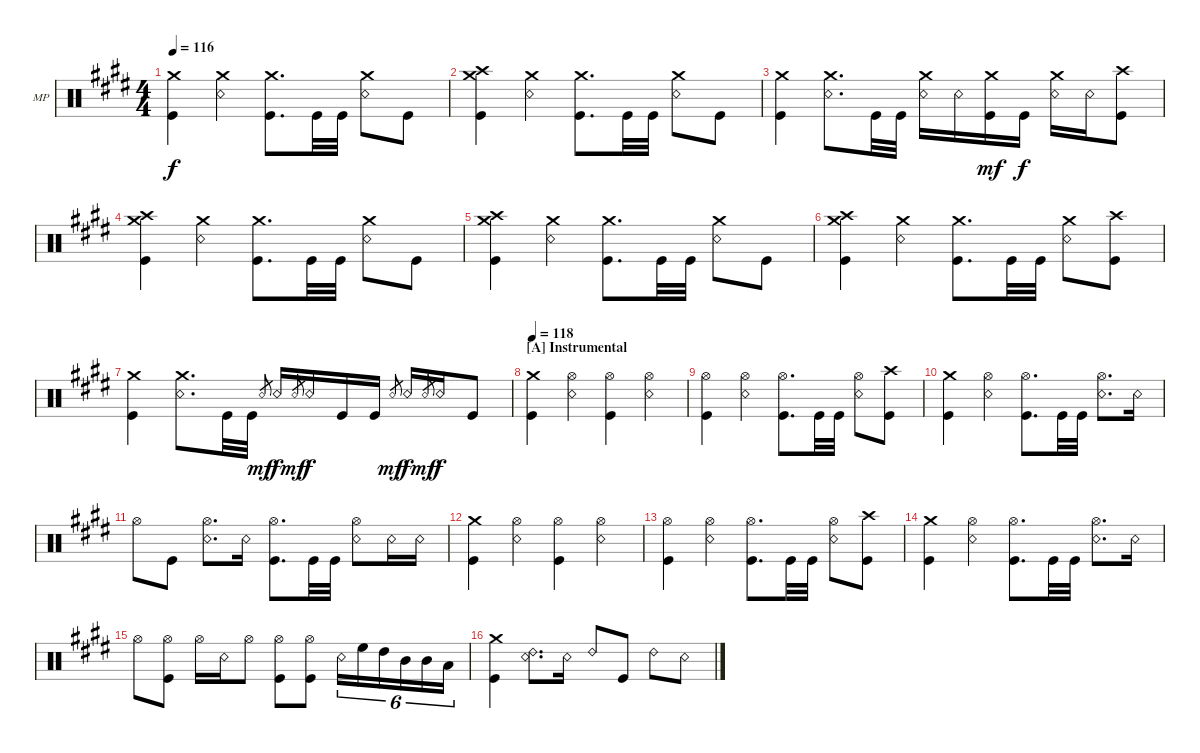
\defaultSystemsLayout 4
\bracketExtendMode groupsimilarinstruments
\firstSystemTrackNameOrientation horizontal
\otherSystemsTrackNameOrientation horizontal
\track ("Mike Portnoy" "MP") {instrument percussion}
\staff {score}
\articulation defaults
\ts (4 4)
\tempo 116
\clef neutral
\ks e
("Crash medium (hit)" "Kick (hit)").4{dy f} ("Crash medium (hit)" "Snare (rim shot)").4 ("Crash medium (hit)" "Kick (hit)").8{d} "Kick (hit)".32 "Kick (hit)".32 ("Crash medium (hit)" "Snare (rim shot)").8 "Kick (hit)".8 |
("Crash medium (hit)" "Crash high (hit)" "Kick (hit)").4 ("Crash medium (hit)" "Snare (rim shot)").4 ("Crash medium (hit)" "Kick (hit)").8{d} "Kick (hit)".32 "Kick (hit)".32 ("Crash medium (hit)" "Snare (rim shot)").8 "Kick (hit)".8 |
("Crash medium (hit)" "Kick (hit)").4 ("Crash medium (hit)" "Snare (rim shot)").8{d} "Kick (hit)".32 "Kick (hit)".32 ("Crash medium (hit)" "Snare (rim shot)").16 "Snare (rim shot)".16 ("Crash medium (hit)" "Kick (hit)").16{dy mf} "Kick (hit)".16{dy f} ("Crash medium (hit)" "Snare (rim shot)").16 "Snare (rim shot)".16 ("Crash high (hit)" "Kick (hit)").8 |
("Crash medium (hit)" "Crash high (hit)" "Kick (hit)").4 ("Crash medium (hit)" "Snare (rim shot)").4 ("Crash medium (hit)" "Kick (hit)").8{d} "Kick (hit)".32 "Kick (hit)".32 ("Crash medium (hit)" "Snare (rim shot)").8 "Kick (hit)".8 |
("Crash medium (hit)" "Crash high (hit)" "Kick (hit)").4 ("Crash medium (hit)" "Snare (rim shot)").4 ("Crash medium (hit)" "Kick (hit)").8{d} "Kick (hit)".32 "Kick (hit)".32 ("Crash medium (hit)" "Snare (rim shot)").8 "Kick (hit)".8 |
("Crash medium (hit)" "Crash high (hit)" "Kick (hit)").4 ("Crash medium (hit)" "Snare (rim shot)").4 ("Crash medium (hit)" "Kick (hit)").8{d} "Kick (hit)".32 "Kick (hit)".32 ("Crash medium (hit)" "Snare (rim shot)").8 ("Crash high (hit)" "Kick (hit)").8 |
("Crash medium (hit)" "Kick (hit)").4 ("Crash medium (hit)" "Snare (rim shot)").8{d} "Kick (hit)".32 "Kick (hit)".32 "Snare (rim shot)".8{gr dy mf} "Snare (rim shot)".16{dy f} "Snare (rim shot)".8{gr dy mf} "Snare (rim shot)".16{dy f} "Kick (hit)".16 "Kick (hit)".16 "Snare (rim shot)".8{gr dy mf} "Snare (rim shot)".16{dy f} "Snare (rim shot)".8{gr dy mf} "Snare (rim shot)".16{dy f} "Kick (hit)".8 |
\section ("A" "Instrumental")
\tempo 118
("Crash medium (hit)" "Kick (hit)").4 ("Hi-Hat (open)" "Snare (rim shot)").4 ("Hi-Hat (open)" "Kick (hit)").4 ("Hi-Hat (open)" "Snare (rim shot)").4 |
("Hi-Hat (open)" "Kick (hit)").4 ("Hi-Hat (open)" "Snare (rim shot)").4 ("Hi-Hat (open)" "Kick (hit)").8{d} "Kick (hit)".32 "Kick (hit)".32 ("Hi-Hat (open)" "Snare (rim shot)").8 ("Crash high (hit)" "Kick (hit)").8 |
("Crash medium (hit)" "Kick (hit)").4 ("Hi-Hat (open)" "Snare (rim shot)").4 ("Hi-Hat (open)" "Kick (hit)").8{d} "Kick (hit)".32 "Kick (hit)".32 ("Hi-Hat (open)" "Snare (rim shot)").8{d} "Snare (rim shot)".16 |
"Hi-Hat (open)".8 "Kick (hit)".8 ("Hi-Hat (open)" "Snare (rim shot)").8{d} "Snare (rim shot)".16 ("Hi-Hat (open)" "Kick (hit)").8{d} "Kick (hit)".32 "Kick (hit)".32 ("Hi-Hat (open)" "Snare (rim shot)").8 "Snare (rim shot)".16 "Snare (rim shot)".16 |
("Crash medium (hit)" "Kick (hit)").4 ("Hi-Hat (open)" "Snare (rim shot)").4 ("Hi-Hat (open)" "Kick (hit)").4 ("Hi-Hat (open)" "Snare (rim shot)").4 |
("Hi-Hat (open)" "Kick (hit)").4 ("Hi-Hat (open)" "Snare (rim shot)").4 ("Hi-Hat (open)" "Kick (hit)").8{d} "Kick (hit)".32 "Kick (hit)".32 ("Hi-Hat (open)" "Snare (rim shot)").8 ("Crash high (hit)" "Kick (hit)").8 |
("Crash medium (hit)" "Kick (hit)").4 ("Hi-Hat (open)" "Snare (rim shot)").4 ("Hi-Hat (open)" "Kick (hit)").8{d} "Kick (hit)".32 "Kick (hit)".32 ("Hi-Hat (open)" "Snare (rim shot)").8{d} "Snare (rim shot)".16 |
"Hi-Hat (open)".8 ("Hi-Hat (open)" "Kick (hit)").8 "Hi-Hat (open)".16 "Snare (rim shot)".16 "Hi-Hat (open)".8 ("Hi-Hat (open)" "Kick (hit)").8 ("Hi-Hat (open)" "Kick (hit)").8 "Snare (rim shot)".16{tu (6 4)} "High Floor Tom (hit)".16{tu (6 4)} "High Tom (hit)".16{tu (6 4)} "Mid Tom (hit)".16{tu (6 4)} "Mid Tom (hit)".16{tu (6 4)} "Low Tom (hit)".16{tu (6 4)} |
("Crash medium (hit)" "Kick (hit)").4 ("Ride (bell) 2" "Snare (rim shot)").8{d} "Snare (rim shot)".16 "Ride (bell) 2".8 "Kick (hit)".8 "Ride (bell) 2".8 "Snare (rim shot)".8
